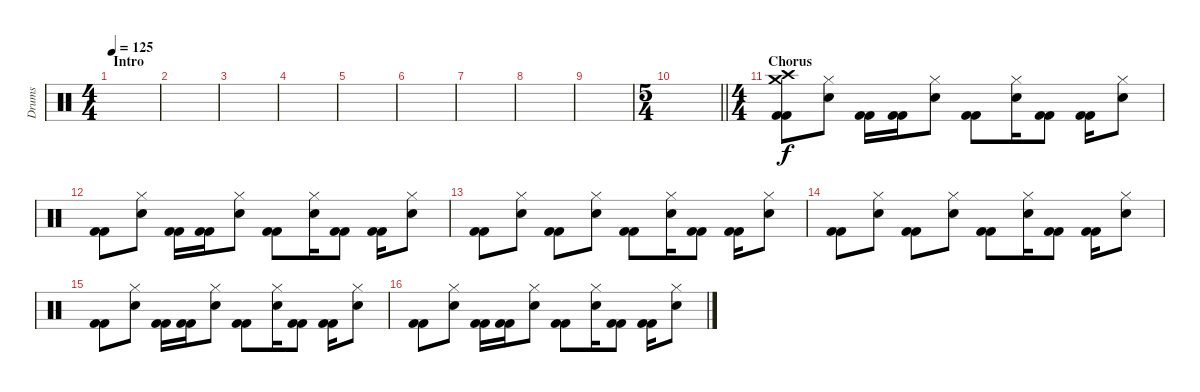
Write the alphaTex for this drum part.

\track ("Drums" "Drums") {instrument percussion}
\staff {score}
\articulation defaults
\ts (4 4)
\section ("" "Intro")
\tempo 125
\clef neutral
\ks c
|
|
|
|
|
|
|
|
|
\ts (5 4)
\barLineRight lightlight
|
\ts (4 4)
\section ("" "Chorus")
("Crash medium (hit)" "Crash high (hit)" "Kick (hit) 2" "Kick (hit) 2").8 ("Hi-Hat (closed)" "Electric Snare (hit)").8{dy f} ("Kick (hit) 2" "Kick (hit) 2").16 ("Kick (hit) 2" "Kick (hit) 2").16 ("Hi-Hat (closed)" "Electric Snare (hit)").8 ("Kick (hit) 2" "Kick (hit) 2").8 ("Hi-Hat (closed)" "Electric Snare (hit)").16 ("Kick (hit) 2" "Kick (hit) 2").8 ("Kick (hit) 2" "Kick (hit) 2").16 ("Hi-Hat (closed)" "Electric Snare (hit)").8 |
("Kick (hit) 2" "Kick (hit) 2").8 ("Hi-Hat (closed)" "Electric Snare (hit)").8 ("Kick (hit) 2" "Kick (hit) 2").16 ("Kick (hit) 2" "Kick (hit) 2").16 ("Hi-Hat (closed)" "Electric Snare (hit)").8 ("Kick (hit) 2" "Kick (hit) 2").8 ("Hi-Hat (closed)" "Electric Snare (hit)").16 ("Kick (hit) 2" "Kick (hit) 2").8 ("Kick (hit) 2" "Kick (hit) 2").16 ("Hi-Hat (closed)" "Electric Snare (hit)").8 |
("Kick (hit) 2" "Kick (hit) 2").8 ("Hi-Hat (closed)" "Electric Snare (hit)").8 ("Kick (hit) 2" "Kick (hit) 2").8 ("Hi-Hat (closed)" "Electric Snare (hit)").8 ("Kick (hit) 2" "Kick (hit) 2").8 ("Hi-Hat (closed)" "Electric Snare (hit)").16 ("Kick (hit) 2" "Kick (hit) 2").8 ("Kick (hit) 2" "Kick (hit) 2").16 ("Hi-Hat (closed)" "Electric Snare (hit)").8 |
("Kick (hit) 2" "Kick (hit) 2").8 ("Hi-Hat (closed)" "Electric Snare (hit)").8 ("Kick (hit) 2" "Kick (hit) 2").8 ("Hi-Hat (closed)" "Electric Snare (hit)").8 ("Kick (hit) 2" "Kick (hit) 2").8 ("Hi-Hat (closed)" "Electric Snare (hit)").16 ("Kick (hit) 2" "Kick (hit) 2").8 ("Kick (hit) 2" "Kick (hit) 2").16 ("Hi-Hat (closed)" "Electric Snare (hit)").8 |
("Kick (hit) 2" "Kick (hit) 2").8 ("Hi-Hat (closed)" "Electric Snare (hit)").8 ("Kick (hit) 2" "Kick (hit) 2").16 ("Kick (hit) 2" "Kick (hit) 2").16 ("Hi-Hat (closed)" "Electric Snare (hit)").8 ("Kick (hit) 2" "Kick (hit) 2").8 ("Hi-Hat (closed)" "Electric Snare (hit)").16 ("Kick (hit) 2" "Kick (hit) 2").8 ("Kick (hit) 2" "Kick (hit) 2").16 ("Hi-Hat (closed)" "Electric Snare (hit)").8 |
("Kick (hit) 2" "Kick (hit) 2").8 ("Hi-Hat (closed)" "Electric Snare (hit)").8 ("Kick (hit) 2" "Kick (hit) 2").16 ("Kick (hit) 2" "Kick (hit) 2").16 ("Hi-Hat (closed)" "Electric Snare (hit)").8 ("Kick (hit) 2" "Kick (hit) 2").8 ("Hi-Hat (closed)" "Electric Snare (hit)").16 ("Kick (hit) 2" "Kick (hit) 2").8 ("Kick (hit) 2" "Kick (hit) 2").16 ("Hi-Hat (closed)" "Electric Snare (hit)").8
